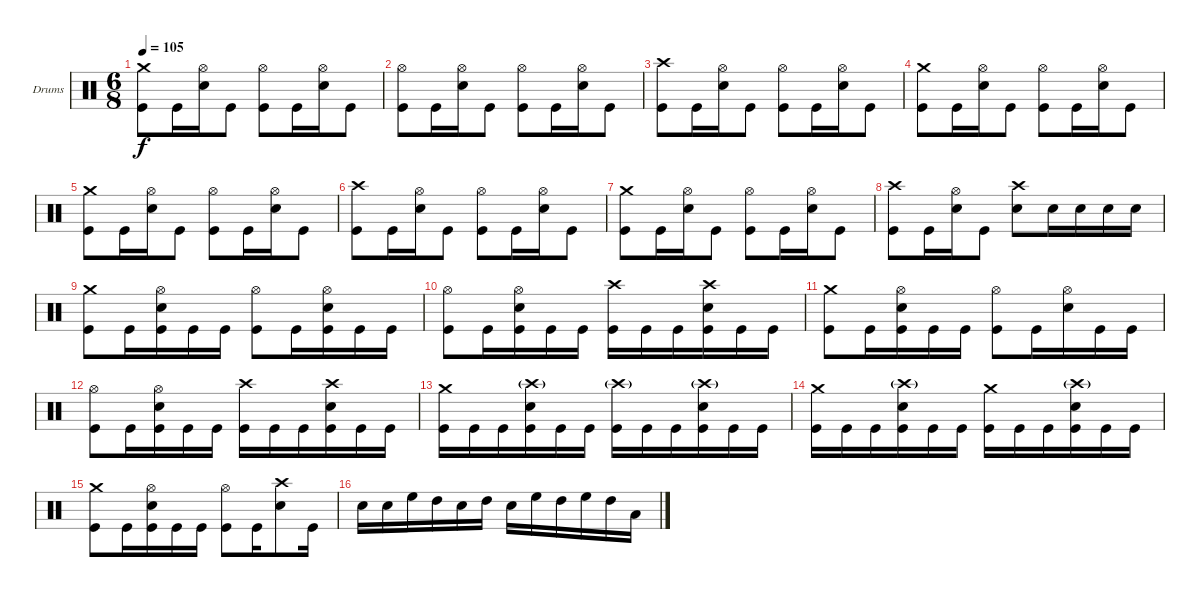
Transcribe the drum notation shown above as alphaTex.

\defaultSystemsLayout 4
\bracketExtendMode groupsimilarinstruments
\firstSystemTrackNameOrientation horizontal
\otherSystemsTrackNameOrientation horizontal
\track ("Stefan Schwarzmann" "Drums") {instrument percussion}
\staff {score}
\articulation defaults
\ts (6 8)
\tempo 105
\clef neutral
\ks c
("Crash medium (hit)" "Kick (hit)").8{dy f} "Kick (hit)".16 ("Hi-Hat (open)" "Snare (hit) 2").16 "Kick (hit)".8 ("Hi-Hat (open)" "Kick (hit)").8 "Kick (hit)".16 ("Hi-Hat (open)" "Snare (hit) 2").16 "Kick (hit)".8 |
("Hi-Hat (open)" "Kick (hit)").8 "Kick (hit)".16 ("Hi-Hat (open)" "Snare (hit) 2").16 "Kick (hit)".8 ("Hi-Hat (open)" "Kick (hit)").8 "Kick (hit)".16 ("Hi-Hat (open)" "Snare (hit) 2").16 "Kick (hit)".8 |
("Crash high (hit)" "Kick (hit)").8 "Kick (hit)".16 ("Hi-Hat (open)" "Snare (hit) 2").16 "Kick (hit)".8 ("Hi-Hat (open)" "Kick (hit)").8 "Kick (hit)".16 ("Hi-Hat (open)" "Snare (hit) 2").16 "Kick (hit)".8 |
("Crash medium (hit)" "Kick (hit)").8 "Kick (hit)".16 ("Hi-Hat (open)" "Snare (hit) 2").16 "Kick (hit)".8 ("Hi-Hat (open)" "Kick (hit)").8 "Kick (hit)".16 ("Hi-Hat (open)" "Snare (hit) 2").16 "Kick (hit)".8 |
("Crash medium (hit)" "Kick (hit)").8 "Kick (hit)".16 ("Hi-Hat (open)" "Snare (hit) 2").16 "Kick (hit)".8 ("Hi-Hat (open)" "Kick (hit)").8 "Kick (hit)".16 ("Hi-Hat (open)" "Snare (hit) 2").16 "Kick (hit)".8 |
("Crash high (hit)" "Kick (hit)").8 "Kick (hit)".16 ("Hi-Hat (open)" "Snare (hit) 2").16 "Kick (hit)".8 ("Hi-Hat (open)" "Kick (hit)").8 "Kick (hit)".16 ("Hi-Hat (open)" "Snare (hit) 2").16 "Kick (hit)".8 |
("Crash medium (hit)" "Kick (hit)").8 "Kick (hit)".16 ("Hi-Hat (open)" "Snare (hit) 2").16 "Kick (hit)".8 ("Hi-Hat (open)" "Kick (hit)").8 "Kick (hit)".16 ("Hi-Hat (open)" "Snare (hit) 2").16 "Kick (hit)".8 |
("Crash high (hit)" "Kick (hit)").8 "Kick (hit)".16 ("Hi-Hat (open)" "Snare (hit) 2").16 "Kick (hit)".8 ("Crash high (hit)" "Snare (hit) 2").8 "Snare (hit) 2".16 "Snare (hit) 2".16 "Snare (hit) 2".16 "Snare (hit) 2".16 |
("Crash medium (hit)" "Kick (hit)").8 "Kick (hit)".16 ("Hi-Hat (open)" "Snare (hit) 2" "Kick (hit)").16 "Kick (hit)".16 "Kick (hit)".16 ("Hi-Hat (open)" "Kick (hit)").8 "Kick (hit)".16 ("Hi-Hat (open)" "Snare (hit) 2" "Kick (hit)").16 "Kick (hit)".16 "Kick (hit)".16 |
("Hi-Hat (open)" "Kick (hit)").8 "Kick (hit)".16 ("Hi-Hat (open)" "Snare (hit) 2" "Kick (hit)").16 "Kick (hit)".16 "Kick (hit)".16 ("Crash high (hit)" "Kick (hit)").16 "Kick (hit)".16 "Kick (hit)".16 ("Crash high (hit)" "Snare (hit) 2" "Kick (hit)").16 "Kick (hit)".16 "Kick (hit)".16 |
("Crash medium (hit)" "Kick (hit)").8 "Kick (hit)".16 ("Hi-Hat (open)" "Snare (hit) 2" "Kick (hit)").16 "Kick (hit)".16 "Kick (hit)".16 ("Hi-Hat (open)" "Kick (hit)").8 "Kick (hit)".16 ("Hi-Hat (open)" "Snare (hit) 2").16 "Kick (hit)".16 "Kick (hit)".16 |
("Hi-Hat (open)" "Kick (hit)").8 "Kick (hit)".16 ("Hi-Hat (open)" "Snare (hit) 2" "Kick (hit)").16 "Kick (hit)".16 "Kick (hit)".16 ("Crash high (hit)" "Kick (hit)").16 "Kick (hit)".16 "Kick (hit)".16 ("Crash high (hit)" "Snare (hit) 2" "Kick (hit)").16 "Kick (hit)".16 "Kick (hit)".16 |
("Crash medium (hit)" "Kick (hit)").16 "Kick (hit)".16 "Kick (hit)".16 ("Crash high (hit)"{g} "Snare (hit) 2" "Kick (hit)").16 "Kick (hit)".16 "Kick (hit)".16 ("Crash high (hit)"{g} "Kick (hit)").16 "Kick (hit)".16 "Kick (hit)".16 ("Crash high (hit)"{g} "Snare (hit) 2" "Kick (hit)").16 "Kick (hit)".16 "Kick (hit)".16 |
("Crash medium (hit)" "Kick (hit)").16 "Kick (hit)".16 "Kick (hit)".16 ("Crash high (hit)"{g} "Snare (hit) 2" "Kick (hit)").16 "Kick (hit)".16 "Kick (hit)".16 ("Crash medium (hit)" "Kick (hit)").16 "Kick (hit)".16 "Kick (hit)".16 ("Crash high (hit)"{g} "Snare (hit) 2" "Kick (hit)").16 "Kick (hit)".16 "Kick (hit)".16 |
("Crash medium (hit)" "Kick (hit)").8 "Kick (hit)".16 ("Hi-Hat (open)" "Snare (hit) 2" "Kick (hit)").16 "Kick (hit)".16 "Kick (hit)".16 ("Hi-Hat (open)" "Kick (hit)").8 "Kick (hit)".16 ("Crash high (hit)" "Snare (hit) 2").8 "Kick (hit)".16 |
"Snare (hit) 2".16 "Snare (hit) 2".16 "High Floor Tom (hit)".16 "High Tom (hit)".16 "Snare (hit) 2".16 "High Tom (hit)".16 "Snare (hit) 2".16 "High Floor Tom (hit)".16 "High Tom (hit)".16 "High Floor Tom (hit)".16 "High Tom (hit)".16 "Low Tom (hit)".16
